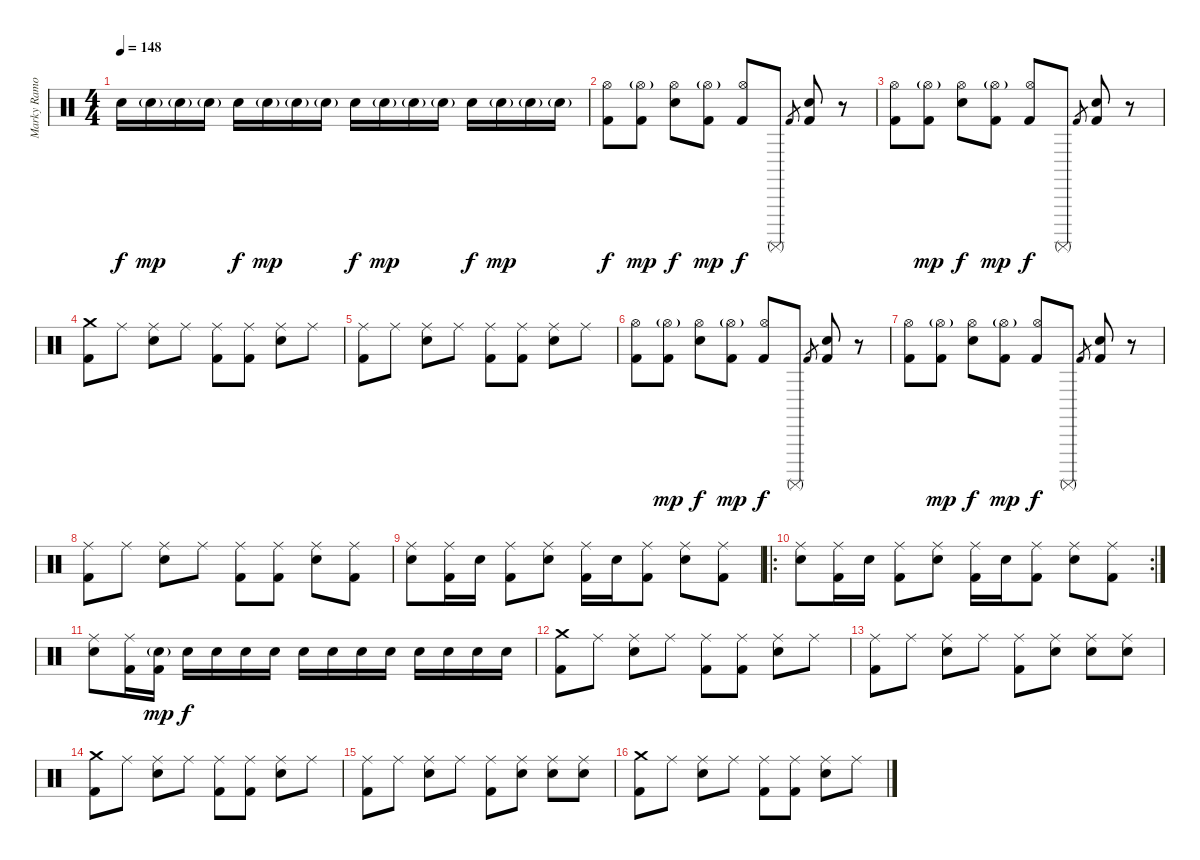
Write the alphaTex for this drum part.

\track ("Marky Ramone - Drums" "Marky Ramo") {instrument percussion}
\staff {score}
\articulation defaults
\ts (4 4)
\tempo 148
\clef neutral
\ks c "Electric Snare (hit)".16{dy f} "Electric Snare (hit)"{g}.16{dy mp} "Electric Snare (hit)"{g}.16 "Electric Snare (hit)"{g}.16 "Electric Snare (hit)".16{dy f} "Electric Snare (hit)"{g}.16{dy mp} "Electric Snare (hit)"{g}.16 "Electric Snare (hit)"{g}.16 "Electric Snare (hit)".16{dy f} "Electric Snare (hit)"{g}.16{dy mp} "Electric Snare (hit)"{g}.16 "Electric Snare (hit)"{g}.16 "Electric Snare (hit)".16{dy f} "Electric Snare (hit)"{g}.16{dy mp} "Electric Snare (hit)"{g}.16 "Electric Snare (hit)"{g}.16
|
("Hi-Hat (open)" "Kick (hit) 2").8{dy f} ("Hi-Hat (open)"{g} "Kick (hit) 2").8{dy mp} ("Hi-Hat (open)" "Electric Snare (hit)").8{dy f} ("Hi-Hat (open)"{g} "Kick (hit) 2").8{dy mp} ("Hi-Hat (open)" "Kick (hit) 2").8{dy f} "Surdo (mute)".8 "Kick (hit) 2".8{gr} ("Electric Snare (hit)" "Kick (hit) 2").8{bd 480} r.8 |
("Hi-Hat (open)" "Kick (hit) 2").8 ("Hi-Hat (open)"{g} "Kick (hit) 2").8{dy mp} ("Hi-Hat (open)" "Electric Snare (hit)").8{dy f} ("Hi-Hat (open)"{g} "Kick (hit) 2").8{dy mp} ("Hi-Hat (open)" "Kick (hit) 2").8{dy f} "Surdo (mute)".8 "Kick (hit) 2".8{gr} ("Electric Snare (hit)" "Kick (hit) 2").8{bd 480} r.8 |
("Crash medium (hit)" "Kick (hit) 2").8 "Ride (middle)".8 ("Ride (middle)" "Electric Snare (hit)").8 "Ride (middle)".8 ("Ride (middle)" "Kick (hit) 2").8 ("Ride (middle)" "Kick (hit) 2").8 ("Ride (middle)" "Electric Snare (hit)").8 "Ride (middle)".8 |
("Ride (middle)" "Kick (hit) 2").8 "Ride (middle)".8 ("Ride (middle)" "Electric Snare (hit)").8 "Ride (middle)".8 ("Ride (middle)" "Kick (hit) 2").8 ("Ride (middle)" "Kick (hit) 2").8 ("Ride (middle)" "Electric Snare (hit)").8 "Ride (middle)".8 |
("Hi-Hat (open)" "Kick (hit) 2").8 ("Hi-Hat (open)"{g} "Kick (hit) 2").8{dy mp} ("Hi-Hat (open)" "Electric Snare (hit)").8{dy f} ("Hi-Hat (open)"{g} "Kick (hit) 2").8{dy mp} ("Hi-Hat (open)" "Kick (hit) 2").8{dy f} "Surdo (mute)".8 "Kick (hit) 2".8{gr} ("Electric Snare (hit)" "Kick (hit) 2").8{bd 480} r.8 |
("Hi-Hat (open)" "Kick (hit) 2").8 ("Hi-Hat (open)"{g} "Kick (hit) 2").8{dy mp} ("Hi-Hat (open)" "Electric Snare (hit)").8{dy f} ("Hi-Hat (open)"{g} "Kick (hit) 2").8{dy mp} ("Hi-Hat (open)" "Kick (hit) 2").8{dy f} "Surdo (mute)".8 "Kick (hit) 2".8{gr} ("Electric Snare (hit)" "Kick (hit) 2").8{bd 480} r.8 |
("Ride (middle)" "Kick (hit) 2").8 "Ride (middle)".8 ("Ride (middle)" "Electric Snare (hit)").8 "Ride (middle)".8 ("Ride (middle)" "Kick (hit) 2").8 ("Ride (middle)" "Kick (hit) 2").8 ("Ride (middle)" "Electric Snare (hit)").8 ("Ride (middle)" "Kick (hit) 2").8 |
("Electric Snare (hit)" "Ride (middle)").8 ("Kick (hit) 2" "Ride (middle)").16 "Electric Snare (hit)".16 ("Kick (hit) 2" "Ride (middle)").8 ("Electric Snare (hit)" "Ride (middle)").8 ("Kick (hit) 2" "Ride (middle)").16 "Electric Snare (hit)".16 ("Kick (hit) 2" "Ride (middle)").8 ("Electric Snare (hit)" "Ride (middle)").8 ("Kick (hit) 2" "Ride (middle)").8 |
\ro
\rc 2
("Electric Snare (hit)" "Ride (middle)").8 ("Kick (hit) 2" "Ride (middle)").16 "Electric Snare (hit)".16 ("Kick (hit) 2" "Ride (middle)").8 ("Electric Snare (hit)" "Ride (middle)").8 ("Kick (hit) 2" "Ride (middle)").16 "Electric Snare (hit)".16 ("Kick (hit) 2" "Ride (middle)").8 ("Electric Snare (hit)" "Ride (middle)").8 ("Kick (hit) 2" "Ride (middle)").8 |
("Electric Snare (hit)" "Ride (middle)").8 ("Kick (hit) 2" "Ride (middle)").16 ("Electric Snare (hit)"{g} "Kick (hit) 2").16{dy mp} "Electric Snare (hit)".16{dy f} "Electric Snare (hit)".16 "Electric Snare (hit)".16 "Electric Snare (hit)".16 "Electric Snare (hit)".16 "Electric Snare (hit)".16 "Electric Snare (hit)".16 "Electric Snare (hit)".16 "Electric Snare (hit)".16 "Electric Snare (hit)".16 "Electric Snare (hit)".16 "Electric Snare (hit)".16 |
("Crash medium (hit)" "Kick (hit) 2").8 "Ride (middle)".8 ("Ride (middle)" "Electric Snare (hit)").8 "Ride (middle)".8 ("Ride (middle)" "Kick (hit) 2").8 ("Ride (middle)" "Kick (hit) 2").8 ("Ride (middle)" "Electric Snare (hit)").8 "Ride (middle)".8 |
("Ride (middle)" "Kick (hit) 2").8 "Ride (middle)".8 ("Ride (middle)" "Electric Snare (hit)").8 "Ride (middle)".8 ("Ride (middle)" "Kick (hit) 2").8 ("Ride (middle)" "Electric Snare (hit)").8 ("Ride (middle)" "Electric Snare (hit)").8 ("Ride (middle)" "Electric Snare (hit)").8 |
("Crash medium (hit)" "Kick (hit) 2").8 "Ride (middle)".8 ("Ride (middle)" "Electric Snare (hit)").8 "Ride (middle)".8 ("Ride (middle)" "Kick (hit) 2").8 ("Ride (middle)" "Kick (hit) 2").8 ("Ride (middle)" "Electric Snare (hit)").8 "Ride (middle)".8 |
("Ride (middle)" "Kick (hit) 2").8 "Ride (middle)".8 ("Ride (middle)" "Electric Snare (hit)").8 "Ride (middle)".8 ("Ride (middle)" "Kick (hit) 2").8 ("Ride (middle)" "Electric Snare (hit)").8 ("Ride (middle)" "Electric Snare (hit)").8 ("Ride (middle)" "Electric Snare (hit)").8 |
("Crash medium (hit)" "Kick (hit) 2").8 "Ride (middle)".8 ("Ride (middle)" "Electric Snare (hit)").8 "Ride (middle)".8 ("Ride (middle)" "Kick (hit) 2").8 ("Ride (middle)" "Kick (hit) 2").8 ("Ride (middle)" "Electric Snare (hit)").8 "Ride (middle)".8
